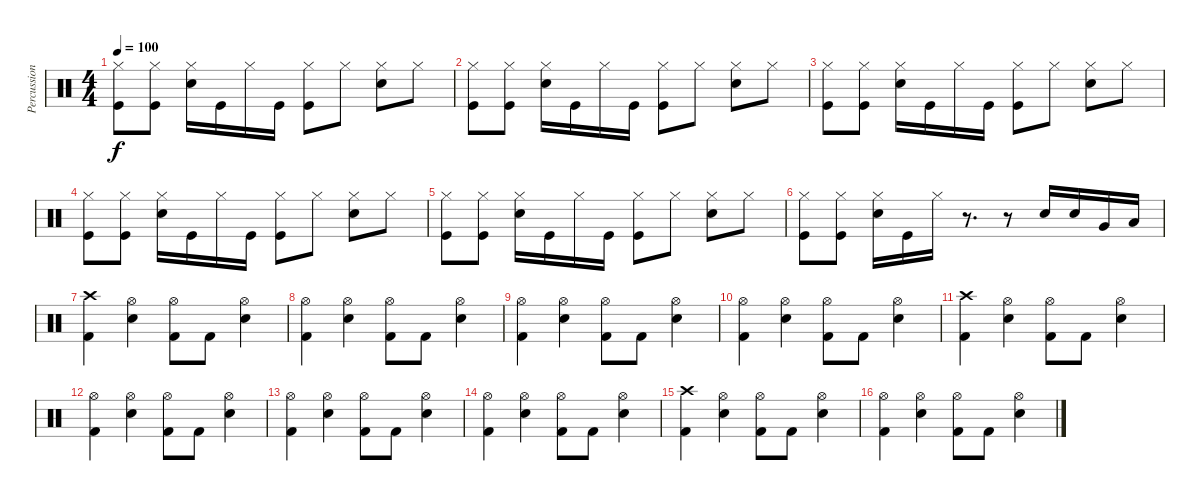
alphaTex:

\track ("Percussion" "Percussion") {instrument percussion}
\staff {score}
\articulation defaults
\ts (4 4)
\tempo 100
\clef neutral
\ks c
("Kick (hit)" "Hi-Hat (closed)").8{dy f} ("Kick (hit)" "Hi-Hat (closed)").8 ("Electric Snare (hit)" "Hi-Hat (closed)").16 "Kick (hit)".16 "Hi-Hat (closed)".16 "Kick (hit)".16 ("Kick (hit)" "Hi-Hat (closed)").8 "Hi-Hat (closed)".8 ("Electric Snare (hit)" "Hi-Hat (closed)").8 "Hi-Hat (closed)".8 |
("Kick (hit)" "Hi-Hat (closed)").8 ("Kick (hit)" "Hi-Hat (closed)").8 ("Electric Snare (hit)" "Hi-Hat (closed)").16 "Kick (hit)".16 "Hi-Hat (closed)".16 "Kick (hit)".16 ("Kick (hit)" "Hi-Hat (closed)").8 "Hi-Hat (closed)".8 ("Electric Snare (hit)" "Hi-Hat (closed)").8 "Hi-Hat (closed)".8 |
("Kick (hit)" "Hi-Hat (closed)").8 ("Kick (hit)" "Hi-Hat (closed)").8 ("Electric Snare (hit)" "Hi-Hat (closed)").16 "Kick (hit)".16 "Hi-Hat (closed)".16 "Kick (hit)".16 ("Kick (hit)" "Hi-Hat (closed)").8 "Hi-Hat (closed)".8 ("Electric Snare (hit)" "Hi-Hat (closed)").8 "Hi-Hat (closed)".8 |
("Kick (hit)" "Hi-Hat (closed)").8 ("Kick (hit)" "Hi-Hat (closed)").8 ("Electric Snare (hit)" "Hi-Hat (closed)").16 "Kick (hit)".16 "Hi-Hat (closed)".16 "Kick (hit)".16 ("Kick (hit)" "Hi-Hat (closed)").8 "Hi-Hat (closed)".8 ("Electric Snare (hit)" "Hi-Hat (closed)").8 "Hi-Hat (closed)".8 |
("Kick (hit)" "Hi-Hat (closed)").8 ("Kick (hit)" "Hi-Hat (closed)").8 ("Electric Snare (hit)" "Hi-Hat (closed)").16 "Kick (hit)".16 "Hi-Hat (closed)".16 "Kick (hit)".16 ("Kick (hit)" "Hi-Hat (closed)").8 "Hi-Hat (closed)".8 ("Electric Snare (hit)" "Hi-Hat (closed)").8 "Hi-Hat (closed)".8 |
("Kick (hit)" "Hi-Hat (closed)").8 ("Kick (hit)" "Hi-Hat (closed)").8 ("Electric Snare (hit)" "Hi-Hat (closed)").16 "Kick (hit)".16 "Hi-Hat (closed)".16 r.8{d} r.8 "Electric Snare (hit)".16 "Electric Snare (hit)".16 "Very Low Tom (hit)".16 "Low Floor Tom (hit)".16 |
("Kick (hit) 2" "Crash high (hit)").4 ("Electric Snare (hit)" "Hi-Hat (open)").4 ("Kick (hit) 2" "Hi-Hat (open)").8 "Kick (hit) 2".8 ("Electric Snare (hit)" "Hi-Hat (open)").4 |
("Kick (hit) 2" "Hi-Hat (open)").4 ("Electric Snare (hit)" "Hi-Hat (open)").4 ("Kick (hit) 2" "Hi-Hat (open)").8 "Kick (hit) 2".8 ("Electric Snare (hit)" "Hi-Hat (open)").4 |
("Kick (hit) 2" "Hi-Hat (open)").4 ("Electric Snare (hit)" "Hi-Hat (open)").4 ("Kick (hit) 2" "Hi-Hat (open)").8 "Kick (hit) 2".8 ("Electric Snare (hit)" "Hi-Hat (open)").4 |
("Kick (hit) 2" "Hi-Hat (open)").4 ("Electric Snare (hit)" "Hi-Hat (open)").4 ("Kick (hit) 2" "Hi-Hat (open)").8 "Kick (hit) 2".8 ("Electric Snare (hit)" "Hi-Hat (open)").4 |
("Kick (hit) 2" "Crash high (hit)").4 ("Electric Snare (hit)" "Hi-Hat (open)").4 ("Kick (hit) 2" "Hi-Hat (open)").8 "Kick (hit) 2".8 ("Electric Snare (hit)" "Hi-Hat (open)").4 |
("Kick (hit) 2" "Hi-Hat (open)").4 ("Electric Snare (hit)" "Hi-Hat (open)").4 ("Kick (hit) 2" "Hi-Hat (open)").8 "Kick (hit) 2".8 ("Electric Snare (hit)" "Hi-Hat (open)").4 |
("Kick (hit) 2" "Hi-Hat (open)").4 ("Electric Snare (hit)" "Hi-Hat (open)").4 ("Kick (hit) 2" "Hi-Hat (open)").8 "Kick (hit) 2".8 ("Electric Snare (hit)" "Hi-Hat (open)").4 |
("Kick (hit) 2" "Hi-Hat (open)").4 ("Electric Snare (hit)" "Hi-Hat (open)").4 ("Kick (hit) 2" "Hi-Hat (open)").8 "Kick (hit) 2".8 ("Electric Snare (hit)" "Hi-Hat (open)").4 |
("Kick (hit) 2" "Crash high (hit)").4 ("Electric Snare (hit)" "Hi-Hat (open)").4 ("Kick (hit) 2" "Hi-Hat (open)").8 "Kick (hit) 2".8 ("Electric Snare (hit)" "Hi-Hat (open)").4 |
("Kick (hit) 2" "Hi-Hat (open)").4 ("Electric Snare (hit)" "Hi-Hat (open)").4 ("Kick (hit) 2" "Hi-Hat (open)").8 "Kick (hit) 2".8 ("Electric Snare (hit)" "Hi-Hat (open)").4
